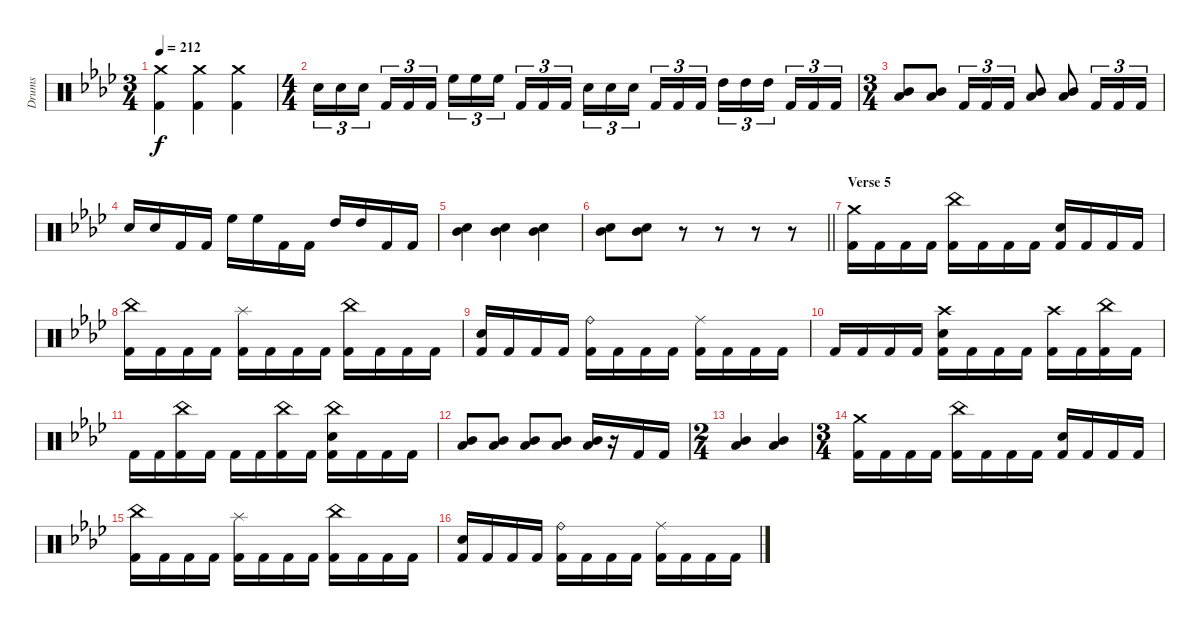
\bracketExtendMode groupsimilarinstruments
\otherSystemsTrackNameOrientation horizontal
\track ("Guyot Begin-Benoit" "Drums") {instrument percussion}
\staff {score}
\articulation defaults
\ts (3 4)
\tempo 212
\clef neutral
\ks ab
("Crash medium (hit)"{acc forcenatural} "Kick (hit) 2"{acc forcenatural}).4{dy f beam Down} ("Crash medium (hit)"{acc forcenatural} "Kick (hit) 2"{acc forcenatural}).4{beam Down} ("Crash medium (hit)"{acc forcenatural} "Kick (hit) 2"{acc forcenatural}).4{beam Down} |
\ts (4 4)
\beaming (8 2 2 2 2)
"Snare (hit) 2"{acc forcenatural}.16{tu (3 2) beam Down} "Snare (hit) 2"{acc forcenatural}.16{tu (3 2) beam Down} "Snare (hit) 2"{acc forcenatural}.16{tu (3 2) beam Down} "Kick (hit) 2"{acc forcenatural}.16{tu (3 2) beam Up} "Kick (hit) 2"{acc forcenatural}.16{tu (3 2) beam Up} "Kick (hit) 2"{acc forcenatural}.16{tu (3 2) beam Up} "High Floor Tom (hit)"{acc forcenatural}.16{tu (3 2) beam Down} "High Floor Tom (hit)"{acc forcenatural}.16{tu (3 2) beam Down} "High Floor Tom (hit)"{acc forcenatural}.16{tu (3 2) beam Down} "Kick (hit) 2"{acc forcenatural}.16{tu (3 2) beam Up} "Kick (hit) 2"{acc forcenatural}.16{tu (3 2) beam Up} "Kick (hit) 2"{acc forcenatural}.16{tu (3 2) beam Up} "Snare (hit) 2"{acc forcenatural}.16{tu (3 2) beam Down} "Snare (hit) 2"{acc forcenatural}.16{tu (3 2) beam Down} "Snare (hit) 2"{acc forcenatural}.16{tu (3 2) beam Down} "Kick (hit) 2"{acc forcenatural}.16{tu (3 2) beam Up} "Kick (hit) 2"{acc forcenatural}.16{tu (3 2) beam Up} "Kick (hit) 2"{acc forcenatural}.16{tu (3 2) beam Up} "High Tom (hit)"{acc forcenatural}.16{tu (3 2) beam Down} "High Tom (hit)"{acc forcenatural}.16{tu (3 2) beam Down} "High Tom (hit)"{acc forcenatural}.16{tu (3 2) beam Down} "Kick (hit) 2"{acc forcenatural}.16{tu (3 2) beam Up} "Kick (hit) 2"{acc forcenatural}.16{tu (3 2) beam Up} "Kick (hit) 2"{acc forcenatural}.16{tu (3 2) beam Up} |
\ts (3 4)
\beaming (8 2 2 2 2)
("Mid Tom (hit)"{acc forcenatural} "Low Tom (hit)"{acc forcenatural}).8{beam Up} ("Mid Tom (hit)"{acc forcenatural} "Low Tom (hit)"{acc forcenatural}).8{beam Up} "Kick (hit) 2"{acc forcenatural}.16{tu (3 2) beam Up} "Kick (hit) 2"{acc forcenatural}.16{tu (3 2) beam Up} "Kick (hit) 2"{acc forcenatural}.16{tu (3 2) beam Up} ("Low Tom (hit)"{acc forcenatural} "Mid Tom (hit)"{acc forcenatural}).8{beam Up} ("Mid Tom (hit)"{acc forcenatural} "Low Tom (hit)"{acc forcenatural}).8{beam Up} "Kick (hit) 2"{acc forcenatural}.16{tu (3 2) beam Up} "Kick (hit) 2"{acc forcenatural}.16{tu (3 2) beam Up} "Kick (hit) 2"{acc forcenatural}.16{tu (3 2) beam Up} |
"Snare (hit) 2"{acc forcenatural}.16{beam Up} "Snare (hit) 2"{acc forcenatural}.16{beam Up} "Kick (hit) 2"{acc forcenatural}.16{beam Up} "Kick (hit) 2"{acc forcenatural}.16{beam Up} "High Floor Tom (hit)"{acc forcenatural}.16{beam Down} "High Floor Tom (hit)"{acc forcenatural}.16{beam Down} "Kick (hit) 2"{acc forcenatural}.16{beam Down} "Kick (hit) 2"{acc forcenatural}.16{beam Down} "High Tom (hit)"{acc forcenatural}.16{beam Up} "High Tom (hit)"{acc forcenatural}.16{beam Up} "Kick (hit) 2"{acc forcenatural}.16{beam Up} "Kick (hit) 2"{acc forcenatural}.16{beam Up} |
("Mid Tom (hit)"{acc forcenatural} "Snare (hit) 2"{acc forcenatural}).4{beam Down} ("Mid Tom (hit)"{acc forcenatural} "Snare (hit) 2"{acc forcenatural}).4{beam Down} ("Mid Tom (hit)"{acc forcenatural} "Snare (hit) 2"{acc forcenatural}).4{beam Down} |
\barLineRight lightlight
("Mid Tom (hit)"{acc forcenatural} "Snare (hit) 2"{acc forcenatural}).8{beam Down} ("Mid Tom (hit)"{acc forcenatural} "Snare (hit) 2"{acc forcenatural}).8{beam Down} r.8{beam Down} r.8{beam Down} r.8{beam Down} r.8{beam Down} |
\section ("" "Verse 5")
("Crash medium (hit)"{acc forcenatural} "Kick (hit) 2"{acc forcenatural}).16{beam Down} "Kick (hit) 2"{acc forcenatural}.16{beam Down} "Kick (hit) 2"{acc forcenatural}.16{beam Down} "Kick (hit) 2"{acc forcenatural}.16{beam Down} ("China (hit)"{acc forcenatural} "Kick (hit) 2"{acc forcenatural}).16{beam Down} "Kick (hit) 2"{acc forcenatural}.16{beam Down} "Kick (hit) 2"{acc forcenatural}.16{beam Down} "Kick (hit) 2"{acc forcenatural}.16{beam Down} ("Snare (hit) 2"{acc forcenatural} "Kick (hit) 2"{acc forcenatural}).16{beam Up} "Kick (hit) 2"{acc forcenatural}.16{beam Up} "Kick (hit) 2"{acc forcenatural}.16{beam Up} "Kick (hit) 2"{acc forcenatural}.16{beam Up} |
("China (hit)"{acc forcenatural} "Kick (hit) 2"{acc forcenatural}).16{beam Down} "Kick (hit) 2"{acc forcenatural}.16{beam Down} "Kick (hit) 2"{acc forcenatural}.16{beam Down} "Kick (hit) 2"{acc forcenatural}.16{beam Down} ("Splash (hit)"{acc forcenatural} "Kick (hit) 2"{acc forcenatural}).16{beam Down} "Kick (hit) 2"{acc forcenatural}.16{beam Down} "Kick (hit) 2"{acc forcenatural}.16{beam Down} "Kick (hit) 2"{acc forcenatural}.16{beam Down} ("China (hit)"{acc forcenatural} "Kick (hit) 2"{acc forcenatural}).16{beam Down} "Kick (hit) 2"{acc forcenatural}.16{beam Down} "Kick (hit) 2"{acc forcenatural}.16{beam Down} "Kick (hit) 2"{acc forcenatural}.16{beam Down} |
("Snare (hit) 2"{acc forcenatural} "Kick (hit) 2"{acc forcenatural}).16{beam Up} "Kick (hit) 2"{acc forcenatural}.16{beam Up} "Kick (hit) 2"{acc forcenatural}.16{beam Up} "Kick (hit) 2"{acc forcenatural}.16{beam Up} ("Ride (bell)"{acc forcenatural} "Kick (hit) 2"{acc forcenatural}).16{beam Down} "Kick (hit) 2"{acc forcenatural}.16{beam Down} "Kick (hit) 2"{acc forcenatural}.16{beam Down} "Kick (hit) 2"{acc forcenatural}.16{beam Down} ("Ride (middle)"{acc forcenatural} "Kick (hit) 2"{acc forcenatural}).16{beam Down} "Kick (hit) 2"{acc forcenatural}.16{beam Down} "Kick (hit) 2"{acc forcenatural}.16{beam Down} "Kick (hit) 2"{acc forcenatural}.16{beam Down} |
"Kick (hit) 2"{acc forcenatural}.16{beam Up} "Kick (hit) 2"{acc forcenatural}.16{beam Up} "Kick (hit) 2"{acc forcenatural}.16{beam Up} "Kick (hit) 2"{acc forcenatural}.16{beam Up} ("Crash high (hit)"{acc forcenatural} "Snare (hit) 2"{acc forcenatural} "Kick (hit) 2"{acc forcenatural}).16{beam Down} "Kick (hit) 2"{acc forcenatural}.16{beam Down} "Kick (hit) 2"{acc forcenatural}.16{beam Down} "Kick (hit) 2"{acc forcenatural}.16{beam Down} ("Crash high (hit)"{acc forcenatural} "Kick (hit) 2"{acc forcenatural}).16{beam Down} "Kick (hit) 2"{acc forcenatural}.16{beam Down} ("China (hit)"{acc forcenatural} "Kick (hit) 2"{acc forcenatural}).16{beam Down} "Kick (hit) 2"{acc forcenatural}.16{beam Down} |
"Kick (hit) 2"{acc forcenatural}.16{beam Down} "Kick (hit) 2"{acc forcenatural}.16{beam Down} ("China (hit)"{acc forcenatural} "Kick (hit) 2"{acc forcenatural}).16{beam Down} "Kick (hit) 2"{acc forcenatural}.16{beam Down} "Kick (hit) 2"{acc forcenatural}.16{beam Down} "Kick (hit) 2"{acc forcenatural}.16{beam Down} ("China (hit)"{acc forcenatural} "Kick (hit) 2"{acc forcenatural}).16{beam Down} "Kick (hit) 2"{acc forcenatural}.16{beam Down} ("China (hit)"{acc forcenatural} "Snare (hit) 2"{acc forcenatural} "Kick (hit) 2"{acc forcenatural}).16{beam Down} "Kick (hit) 2"{acc forcenatural}.16{beam Down} "Kick (hit) 2"{acc forcenatural}.16{beam Down} "Kick (hit) 2"{acc forcenatural}.16{beam Down} |
("Low Tom (hit)"{acc forcenatural} "Mid Tom (hit)"{acc forcenatural}).8{beam Up} ("Low Tom (hit)"{acc forcenatural} "Mid Tom (hit)"{acc forcenatural}).8{beam Up} ("Low Tom (hit)"{acc forcenatural} "Mid Tom (hit)"{acc forcenatural}).8{beam Up} ("Low Tom (hit)"{acc forcenatural} "Mid Tom (hit)"{acc forcenatural}).8{beam Up} ("Low Tom (hit)"{acc forcenatural} "Mid Tom (hit)"{acc forcenatural}).16{beam Up} r.16{beam Up} "Kick (hit) 2"{acc forcenatural}.16{beam Up} "Kick (hit) 2"{acc forcenatural}.16{beam Up} |
\ts (2 4)
\beaming (8 2 2 2 2)
("Low Tom (hit)"{acc forcenatural} "Mid Tom (hit)"{acc forcenatural}).4{beam Up} ("Low Tom (hit)"{acc forcenatural} "Mid Tom (hit)"{acc forcenatural}).4{beam Up} |
\ts (3 4)
\beaming (8 2 2 2 2)
("Crash medium (hit)"{acc forcenatural} "Kick (hit) 2"{acc forcenatural}).16{beam Down} "Kick (hit) 2"{acc forcenatural}.16{beam Down} "Kick (hit) 2"{acc forcenatural}.16{beam Down} "Kick (hit) 2"{acc forcenatural}.16{beam Down} ("China (hit)"{acc forcenatural} "Kick (hit) 2"{acc forcenatural}).16{beam Down} "Kick (hit) 2"{acc forcenatural}.16{beam Down} "Kick (hit) 2"{acc forcenatural}.16{beam Down} "Kick (hit) 2"{acc forcenatural}.16{beam Down} ("Snare (hit) 2"{acc forcenatural} "Kick (hit) 2"{acc forcenatural}).16{beam Up} "Kick (hit) 2"{acc forcenatural}.16{beam Up} "Kick (hit) 2"{acc forcenatural}.16{beam Up} "Kick (hit) 2"{acc forcenatural}.16{beam Up} |
("China (hit)"{acc forcenatural} "Kick (hit) 2"{acc forcenatural}).16{beam Down} "Kick (hit) 2"{acc forcenatural}.16{beam Down} "Kick (hit) 2"{acc forcenatural}.16{beam Down} "Kick (hit) 2"{acc forcenatural}.16{beam Down} ("Splash (hit)"{acc forcenatural} "Kick (hit) 2"{acc forcenatural}).16{beam Down} "Kick (hit) 2"{acc forcenatural}.16{beam Down} "Kick (hit) 2"{acc forcenatural}.16{beam Down} "Kick (hit) 2"{acc forcenatural}.16{beam Down} ("China (hit)"{acc forcenatural} "Kick (hit) 2"{acc forcenatural}).16{beam Down} "Kick (hit) 2"{acc forcenatural}.16{beam Down} "Kick (hit) 2"{acc forcenatural}.16{beam Down} "Kick (hit) 2"{acc forcenatural}.16{beam Down} |
("Snare (hit) 2"{acc forcenatural} "Kick (hit) 2"{acc forcenatural}).16{beam Up} "Kick (hit) 2"{acc forcenatural}.16{beam Up} "Kick (hit) 2"{acc forcenatural}.16{beam Up} "Kick (hit) 2"{acc forcenatural}.16{beam Up} ("Ride (bell)"{acc forcenatural} "Kick (hit) 2"{acc forcenatural}).16{beam Down} "Kick (hit) 2"{acc forcenatural}.16{beam Down} "Kick (hit) 2"{acc forcenatural}.16{beam Down} "Kick (hit) 2"{acc forcenatural}.16{beam Down} ("Ride (middle)"{acc forcenatural} "Kick (hit) 2"{acc forcenatural}).16{beam Down} "Kick (hit) 2"{acc forcenatural}.16{beam Down} "Kick (hit) 2"{acc forcenatural}.16{beam Down} "Kick (hit) 2"{acc forcenatural}.16{beam Down}
